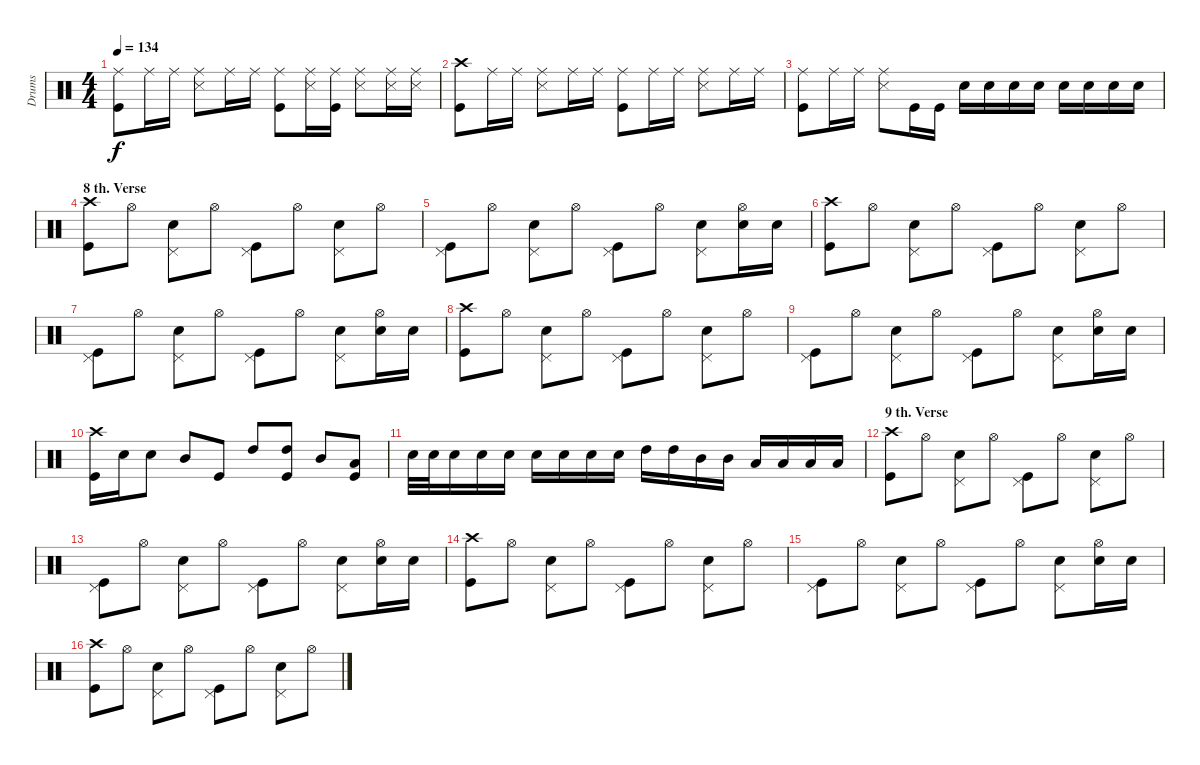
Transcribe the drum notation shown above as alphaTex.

\track ("Drums" "Drums") {instrument percussion}
\staff {score}
\articulation defaults
\ts (4 4)
\tempo 134
\clef neutral
\ks c
("Ride (middle)" "Kick (hit)").8{dy f} "Ride (middle)".16 "Ride (middle)".16 ("Ride (middle)" "Snare (side stick) 3").8 "Ride (middle)".16 "Ride (middle)".16 ("Ride (middle)" "Kick (hit)").8 ("Ride (middle)" "Snare (side stick) 3").16 ("Ride (middle)" "Kick (hit)").16 ("Ride (middle)" "Snare (side stick) 3").8 ("Ride (middle)" "Snare (side stick) 3").16 ("Ride (middle)" "Snare (side stick) 3").16 |
("Crash high (hit)" "Kick (hit)").8 "Ride (middle)".16 "Ride (middle)".16 ("Ride (middle)" "Snare (side stick) 3").8 "Ride (middle)".16 "Ride (middle)".16 ("Ride (middle)" "Kick (hit)").8 "Ride (middle)".16 "Ride (middle)".16 ("Ride (middle)" "Snare (side stick) 3").8 "Ride (middle)".16 "Ride (middle)".16 |
("Ride (middle)" "Kick (hit)").8 "Ride (middle)".16 "Ride (middle)".16 ("Ride (middle)" "Snare (side stick) 3").8 "Kick (hit)".16 "Kick (hit)".16 "Electric Snare (hit)".16 "Electric Snare (hit)".16 "Electric Snare (hit)".16 "Electric Snare (hit)".16 "Electric Snare (hit)".16 "Electric Snare (hit)".16 "Electric Snare (hit)".16 "Electric Snare (hit)".16 |
\section ("" "8 th. Verse")
("Crash high (hit)" "Kick (hit)").8 "Hi-Hat (open)".8 ("Pedal Hi-Hat (hit)" "Electric Snare (hit)").8 "Hi-Hat (open)".8 ("Pedal Hi-Hat (hit)" "Kick (hit)").8 "Hi-Hat (open)".8 ("Pedal Hi-Hat (hit)" "Electric Snare (hit)").8 "Hi-Hat (open)".8 |
("Pedal Hi-Hat (hit)" "Kick (hit)").8 "Hi-Hat (open)".8 ("Pedal Hi-Hat (hit)" "Electric Snare (hit)").8 "Hi-Hat (open)".8 ("Pedal Hi-Hat (hit)" "Kick (hit)").8 "Hi-Hat (open)".8 ("Pedal Hi-Hat (hit)" "Electric Snare (hit)").8 ("Hi-Hat (open)" "Electric Snare (hit)").16 "Electric Snare (hit)".16 |
("Crash high (hit)" "Kick (hit)").8 "Hi-Hat (open)".8 ("Pedal Hi-Hat (hit)" "Electric Snare (hit)").8 "Hi-Hat (open)".8 ("Pedal Hi-Hat (hit)" "Kick (hit)").8 "Hi-Hat (open)".8 ("Pedal Hi-Hat (hit)" "Electric Snare (hit)").8 "Hi-Hat (open)".8 |
("Pedal Hi-Hat (hit)" "Kick (hit)").8 "Hi-Hat (open)".8 ("Pedal Hi-Hat (hit)" "Electric Snare (hit)").8 "Hi-Hat (open)".8 ("Pedal Hi-Hat (hit)" "Kick (hit)").8 "Hi-Hat (open)".8 ("Pedal Hi-Hat (hit)" "Electric Snare (hit)").8 ("Hi-Hat (open)" "Electric Snare (hit)").16 "Electric Snare (hit)".16 |
("Crash high (hit)" "Kick (hit)").8 "Hi-Hat (open)".8 ("Pedal Hi-Hat (hit)" "Electric Snare (hit)").8 "Hi-Hat (open)".8 ("Pedal Hi-Hat (hit)" "Kick (hit)").8 "Hi-Hat (open)".8 ("Pedal Hi-Hat (hit)" "Electric Snare (hit)").8 "Hi-Hat (open)".8 |
("Pedal Hi-Hat (hit)" "Kick (hit)").8 "Hi-Hat (open)".8 ("Pedal Hi-Hat (hit)" "Electric Snare (hit)").8 "Hi-Hat (open)".8 ("Pedal Hi-Hat (hit)" "Kick (hit)").8 "Hi-Hat (open)".8 ("Pedal Hi-Hat (hit)" "Electric Snare (hit)").8 ("Hi-Hat (open)" "Electric Snare (hit)").16 "Electric Snare (hit)".16 |
("Crash high (hit)" "Kick (hit)").16 "Electric Snare (hit)".16 "Electric Snare (hit)".8 "Mid Tom (hit)".8 "Kick (hit)".8 "High Tom (hit)".8 ("High Tom (hit)" "Kick (hit)").8 "Mid Tom (hit)".8 ("Low Tom (hit)" "Kick (hit)").8 |
"Electric Snare (hit)".32 "Electric Snare (hit)".32 "Electric Snare (hit)".16 "Electric Snare (hit)".16 "Electric Snare (hit)".16 "Electric Snare (hit)".16 "Electric Snare (hit)".16 "Electric Snare (hit)".16 "Electric Snare (hit)".16 "High Tom (hit)".16 "High Tom (hit)".16 "Mid Tom (hit)".16 "Mid Tom (hit)".16 "Low Tom (hit)".16 "Low Tom (hit)".16 "Low Tom (hit)".16 "Low Tom (hit)".16 |
\section ("" "9 th. Verse")
("Crash high (hit)" "Kick (hit)").8 "Hi-Hat (open)".8 ("Pedal Hi-Hat (hit)" "Electric Snare (hit)").8 "Hi-Hat (open)".8 ("Pedal Hi-Hat (hit)" "Kick (hit)").8 "Hi-Hat (open)".8 ("Pedal Hi-Hat (hit)" "Electric Snare (hit)").8 "Hi-Hat (open)".8 |
("Pedal Hi-Hat (hit)" "Kick (hit)").8 "Hi-Hat (open)".8 ("Pedal Hi-Hat (hit)" "Electric Snare (hit)").8 "Hi-Hat (open)".8 ("Pedal Hi-Hat (hit)" "Kick (hit)").8 "Hi-Hat (open)".8 ("Pedal Hi-Hat (hit)" "Electric Snare (hit)").8 ("Hi-Hat (open)" "Electric Snare (hit)").16 "Electric Snare (hit)".16 |
("Crash high (hit)" "Kick (hit)").8 "Hi-Hat (open)".8 ("Pedal Hi-Hat (hit)" "Electric Snare (hit)").8 "Hi-Hat (open)".8 ("Pedal Hi-Hat (hit)" "Kick (hit)").8 "Hi-Hat (open)".8 ("Pedal Hi-Hat (hit)" "Electric Snare (hit)").8 "Hi-Hat (open)".8 |
("Pedal Hi-Hat (hit)" "Kick (hit)").8 "Hi-Hat (open)".8 ("Pedal Hi-Hat (hit)" "Electric Snare (hit)").8 "Hi-Hat (open)".8 ("Pedal Hi-Hat (hit)" "Kick (hit)").8 "Hi-Hat (open)".8 ("Pedal Hi-Hat (hit)" "Electric Snare (hit)").8 ("Hi-Hat (open)" "Electric Snare (hit)").16 "Electric Snare (hit)".16 |
("Crash high (hit)" "Kick (hit)").8 "Hi-Hat (open)".8 ("Pedal Hi-Hat (hit)" "Electric Snare (hit)").8 "Hi-Hat (open)".8 ("Pedal Hi-Hat (hit)" "Kick (hit)").8 "Hi-Hat (open)".8 ("Pedal Hi-Hat (hit)" "Electric Snare (hit)").8 "Hi-Hat (open)".8
